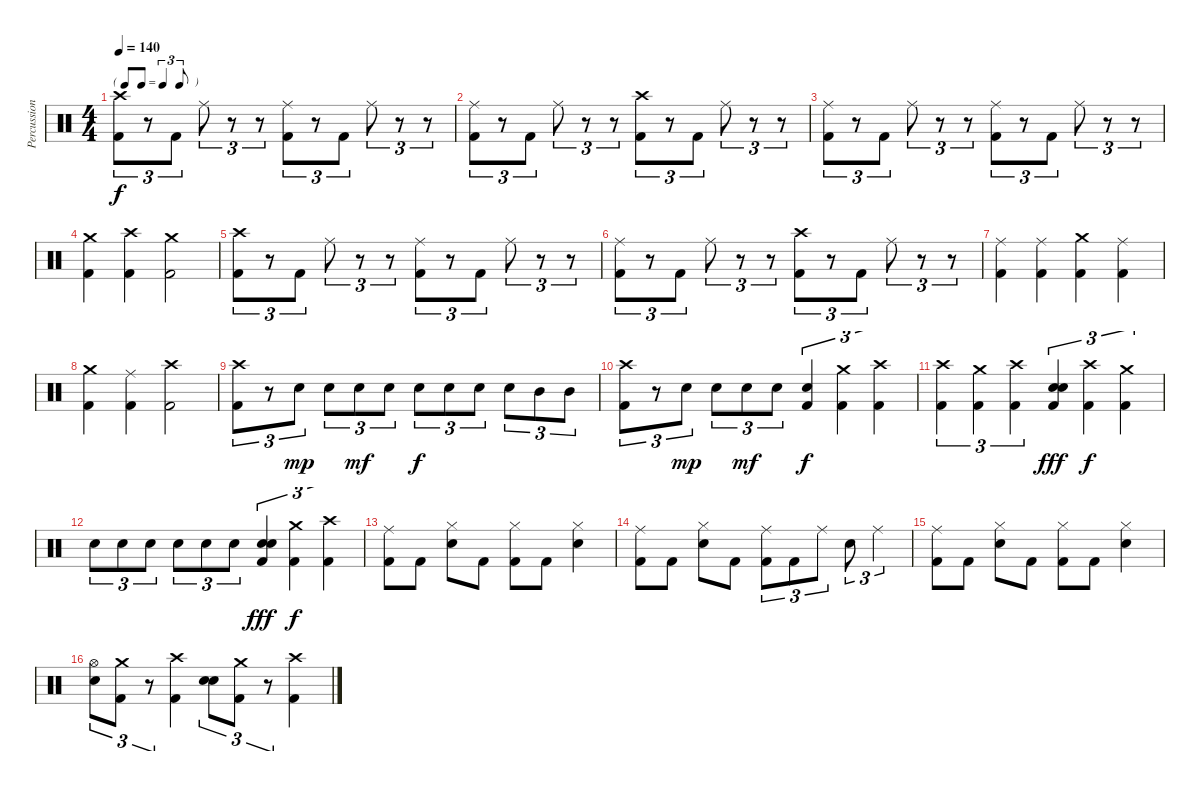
\track ("Percussion" "Percussion") {instrument percussion}
\staff {score}
\articulation defaults
\ts (4 4)
\tf triplet8th
\tempo 140
\clef neutral
\ks c
("Kick (hit) 2" "Crash high (hit)").8{tu (3 2) dy f} r.8{tu (3 2)} "Kick (hit) 2".8{tu (3 2)} "Ride (middle)".8{tu (3 2)} r.8{tu (3 2)} r.8{tu (3 2)} ("Kick (hit) 2" "Ride (middle)").8{tu (3 2)} r.8{tu (3 2)} "Kick (hit) 2".8{tu (3 2)} "Ride (middle)".8{tu (3 2)} r.8{tu (3 2)} r.8{tu (3 2)} |
("Kick (hit) 2" "Ride (middle)").8{tu (3 2)} r.8{tu (3 2)} "Kick (hit) 2".8{tu (3 2)} "Ride (middle)".8{tu (3 2)} r.8{tu (3 2)} r.8{tu (3 2)} ("Kick (hit) 2" "Crash high (hit)").8{tu (3 2)} r.8{tu (3 2)} "Kick (hit) 2".8{tu (3 2)} "Ride (middle)".8{tu (3 2)} r.8{tu (3 2)} r.8{tu (3 2)} |
("Kick (hit) 2" "Ride (middle)").8{tu (3 2)} r.8{tu (3 2)} "Kick (hit) 2".8{tu (3 2)} "Ride (middle)".8{tu (3 2)} r.8{tu (3 2)} r.8{tu (3 2)} ("Kick (hit) 2" "Ride (middle)").8{tu (3 2)} r.8{tu (3 2)} "Kick (hit) 2".8{tu (3 2)} "Ride (middle)".8{tu (3 2)} r.8{tu (3 2)} r.8{tu (3 2)} |
("Kick (hit) 2" "Crash medium (hit)").4 ("Kick (hit) 2" "Crash high (hit)").4 ("Kick (hit) 2" "Crash medium (hit)").2 |
("Kick (hit) 2" "Crash high (hit)").8{tu (3 2)} r.8{tu (3 2)} "Kick (hit) 2".8{tu (3 2)} "Ride (middle)".8{tu (3 2)} r.8{tu (3 2)} r.8{tu (3 2)} ("Kick (hit) 2" "Ride (middle)").8{tu (3 2)} r.8{tu (3 2)} "Kick (hit) 2".8{tu (3 2)} "Ride (middle)".8{tu (3 2)} r.8{tu (3 2)} r.8{tu (3 2)} |
("Kick (hit) 2" "Ride (middle)").8{tu (3 2)} r.8{tu (3 2)} "Kick (hit) 2".8{tu (3 2)} "Ride (middle)".8{tu (3 2)} r.8{tu (3 2)} r.8{tu (3 2)} ("Kick (hit) 2" "Crash high (hit)").8{tu (3 2)} r.8{tu (3 2)} "Kick (hit) 2".8{tu (3 2)} "Ride (middle)".8{tu (3 2)} r.8{tu (3 2)} r.8{tu (3 2)} |
("Kick (hit) 2" "Ride (middle)").4 ("Kick (hit) 2" "Ride (middle)").4 ("Kick (hit) 2" "Crash medium (hit)").4 ("Kick (hit) 2" "Ride (middle)").4 |
("Kick (hit) 2" "Crash medium (hit)").4 ("Kick (hit) 2" "Ride (middle)").4 ("Kick (hit) 2" "Crash high (hit)").2 |
("Kick (hit) 2" "Crash high (hit)").8{tu (3 2)} r.8{tu (3 2)} "Snare (hit) 2".8{tu (3 2) dy mp} "Snare (hit) 2".8{tu (3 2)} "Snare (hit) 2".8{tu (3 2) dy mf} "Snare (hit) 2".8{tu (3 2)} "Snare (hit) 2".8{tu (3 2) dy f} "Snare (hit) 2".8{tu (3 2)} "Snare (hit) 2".8{tu (3 2)} "Snare (hit) 2".8{tu (3 2)} "Mid Tom (hit)".8{tu (3 2)} "Mid Tom (hit)".8{tu (3 2)} |
("Kick (hit) 2" "Crash high (hit)").8{tu (3 2)} r.8{tu (3 2)} "Snare (hit) 2".8{tu (3 2) dy mp} "Snare (hit) 2".8{tu (3 2)} "Snare (hit) 2".8{tu (3 2) dy mf} "Snare (hit) 2".8{tu (3 2)} ("Kick (hit) 2" "Snare (hit) 2").4{tu (3 2) dy f} ("Kick (hit) 2" "Crash medium (hit)").4{tu (3 2)} ("Kick (hit) 2" "Crash high (hit)").4{tu (3 2)} |
("Kick (hit) 2" "Crash high (hit)").4{tu (3 2)} ("Kick (hit) 2" "Crash medium (hit)").4{tu (3 2)} ("Kick (hit) 2" "Crash high (hit)").4{tu (3 2)} ("Kick (hit) 2" "Snare (hit) 2" "Snare (hit) 2").4{tu (3 2) dy fff} ("Kick (hit) 2" "Crash high (hit)").4{tu (3 2) dy f} ("Kick (hit) 2" "Crash medium (hit)").4{tu (3 2)} |
"Snare (hit) 2".8{tu (3 2)} "Snare (hit) 2".8{tu (3 2)} "Snare (hit) 2".8{tu (3 2)} "Snare (hit) 2".8{tu (3 2)} "Snare (hit) 2".8{tu (3 2)} "Snare (hit) 2".8{tu (3 2)} ("Kick (hit) 2" "Snare (hit) 2" "Snare (hit) 2").4{tu (3 2) dy fff} ("Kick (hit) 2" "Crash medium (hit)").4{tu (3 2) dy f} ("Kick (hit) 2" "Crash high (hit)").4{tu (3 2)} |
("Kick (hit) 2" "Ride (middle)").8 "Kick (hit) 2".8 ("Snare (hit) 2" "Hi-Hat (closed)").8 "Kick (hit) 2".8 ("Kick (hit) 2" "Hi-Hat (closed)").8 "Kick (hit) 2".8 ("Snare (hit) 2" "Hi-Hat (closed)").4 |
("Kick (hit) 2" "Ride (middle)").8 "Kick (hit) 2".8 ("Snare (hit) 2" "Hi-Hat (closed)").8 "Kick (hit) 2".8 ("Kick (hit) 2" "Ride (middle)").8{tu (3 2)} "Kick (hit) 2".8{tu (3 2)} "Ride (middle)".8{tu (3 2)} "Snare (hit) 2".8{tu (3 2)} "Ride (middle)".4{tu (3 2)} |
("Kick (hit) 2" "Ride (middle)").8 "Kick (hit) 2".8 ("Snare (hit) 2" "Hi-Hat (closed)").8 "Kick (hit) 2".8 ("Kick (hit) 2" "Hi-Hat (closed)").8 "Kick (hit) 2".8 ("Snare (hit) 2" "Hi-Hat (closed)").4 |
("Snare (hit) 2" "Hi-Hat (open)").8{tu (3 2)} ("Kick (hit) 2" "Crash medium (hit)").8{tu (3 2)} r.8{tu (3 2)} ("Kick (hit) 2" "Crash high (hit)").4 ("Snare (hit) 2" "Snare (hit) 2").8{tu (3 2)} ("Kick (hit) 2" "Crash medium (hit)").8{tu (3 2)} r.8{tu (3 2)} ("Kick (hit) 2" "Crash high (hit)").4
